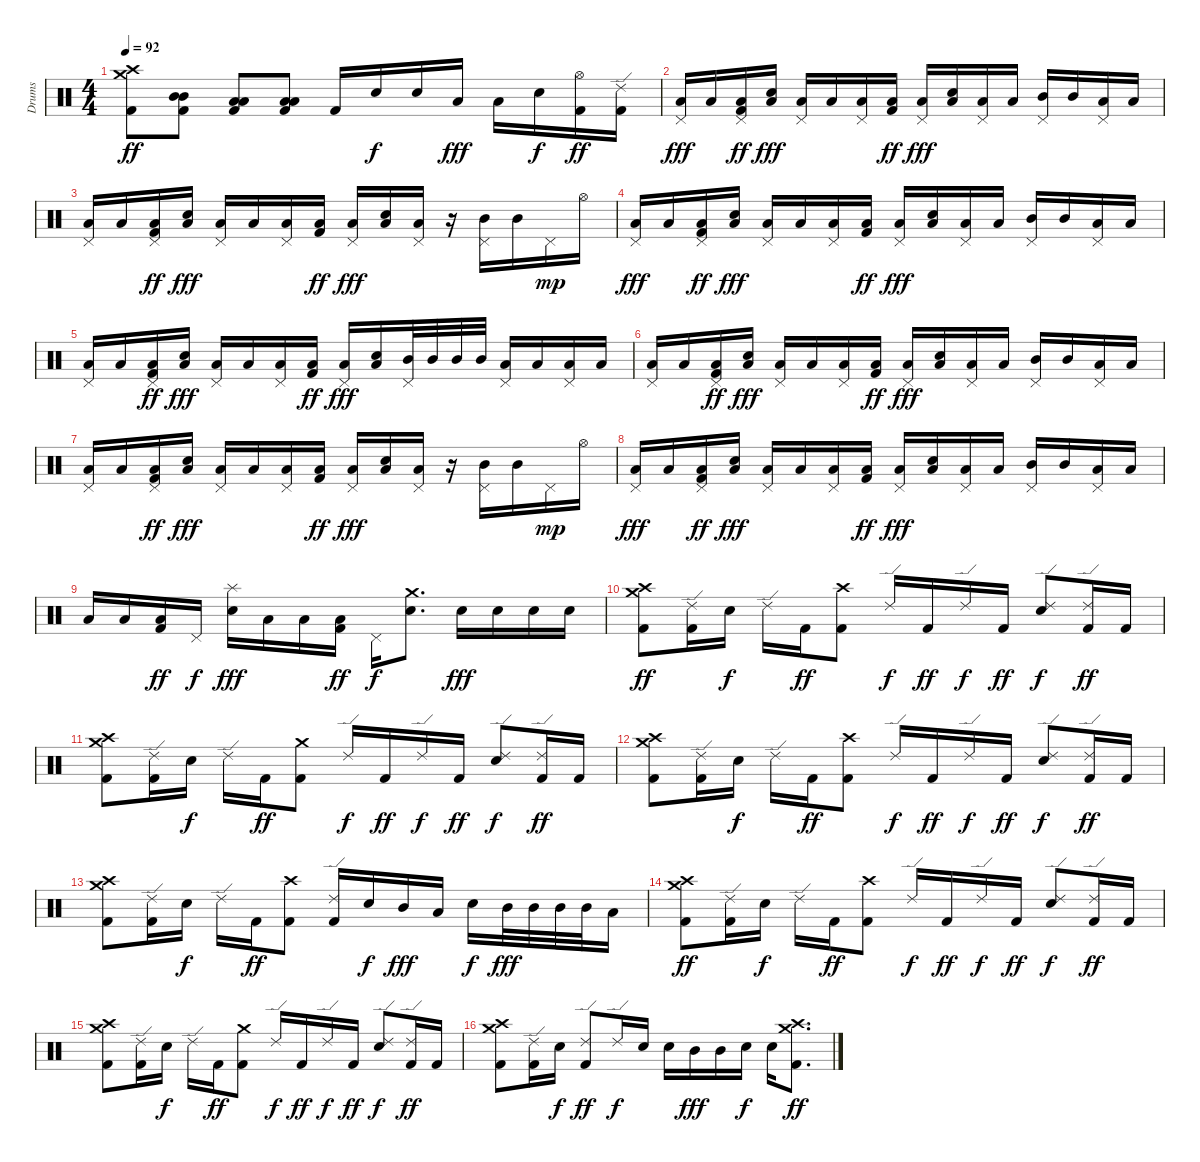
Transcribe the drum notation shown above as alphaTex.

\track ("Drums" "Drums") {instrument percussion}
\staff {score}
\articulation defaults
\ts (4 4)
\tempo 92
\clef neutral
\ks c
("Crash medium (hit)" "Crash high (hit)" "Kick (hit) 2").8{dy ff} ("Mid Tom (hit)" "Mid Tom (hit)" "Kick (hit) 2").8 ("Low Tom (hit)" "Low Tom (hit)" "Kick (hit) 2").8 ("Low Floor Tom (hit)" "Low Floor Tom (hit)" "Kick (hit) 2").8 "Kick (hit) 2".16 "Electric Snare (hit)".16{dy f} "Electric Snare (hit)".16 "Low Tom (hit)".16{dy fff} "Low Tom (hit)".16 "Electric Snare (hit)".16{dy f} ("Hi-Hat (open)" "Kick (hit) 2").16{dy ff} ("Ride (edge) 2" "Kick (hit) 2").16 |
("Pedal Hi-Hat (hit)" "Low Floor Tom (hit)").16{dy fff} "Low Floor Tom (hit)".16 ("Pedal Hi-Hat (hit)" "Low Floor Tom (hit)" "Kick (hit) 2").16{dy ff} ("Electric Snare (hit)" "Low Floor Tom (hit)").16{dy fff} ("Pedal Hi-Hat (hit)" "Low Floor Tom (hit)").16 "Low Floor Tom (hit)".16 ("Pedal Hi-Hat (hit)" "Low Floor Tom (hit)").16 ("Low Floor Tom (hit)" "Kick (hit) 2").16{dy ff} ("Pedal Hi-Hat (hit)" "Low Floor Tom (hit)").16{dy fff} ("Electric Snare (hit)" "Low Floor Tom (hit)").16 ("Pedal Hi-Hat (hit)" "Low Floor Tom (hit)").16 "Low Floor Tom (hit)".16 ("Pedal Hi-Hat (hit)" "Mid Tom (hit)").16 "Mid Tom (hit)".16 ("Pedal Hi-Hat (hit)" "Low Tom (hit)").16 "Low Tom (hit)".16 |
("Pedal Hi-Hat (hit)" "Low Floor Tom (hit)").16 "Low Floor Tom (hit)".16 ("Pedal Hi-Hat (hit)" "Low Floor Tom (hit)" "Kick (hit) 2").16{dy ff} ("Electric Snare (hit)" "Low Floor Tom (hit)").16{dy fff} ("Pedal Hi-Hat (hit)" "Low Floor Tom (hit)").16 "Low Floor Tom (hit)".16 ("Pedal Hi-Hat (hit)" "Low Floor Tom (hit)").16 ("Low Floor Tom (hit)" "Kick (hit) 2").16{dy ff} ("Pedal Hi-Hat (hit)" "Low Floor Tom (hit)").16{dy fff} ("Electric Snare (hit)" "Low Floor Tom (hit)").16 ("Pedal Hi-Hat (hit)" "Low Floor Tom (hit)").16 r.16 ("Pedal Hi-Hat (hit)" "Mid Tom (hit)").16 "Mid Tom (hit)".16 "Pedal Hi-Hat (hit)".16{dy mp} "Hi-Hat (open)".16 |
("Pedal Hi-Hat (hit)" "Low Floor Tom (hit)").16{dy fff} "Low Floor Tom (hit)".16 ("Pedal Hi-Hat (hit)" "Low Floor Tom (hit)" "Kick (hit) 2").16{dy ff} ("Electric Snare (hit)" "Low Floor Tom (hit)").16{dy fff} ("Pedal Hi-Hat (hit)" "Low Floor Tom (hit)").16 "Low Floor Tom (hit)".16 ("Pedal Hi-Hat (hit)" "Low Floor Tom (hit)").16 ("Low Floor Tom (hit)" "Kick (hit) 2").16{dy ff} ("Pedal Hi-Hat (hit)" "Low Floor Tom (hit)").16{dy fff} ("Electric Snare (hit)" "Low Floor Tom (hit)").16 ("Pedal Hi-Hat (hit)" "Low Floor Tom (hit)").16 "Low Floor Tom (hit)".16 ("Pedal Hi-Hat (hit)" "Mid Tom (hit)").16 "Mid Tom (hit)".16 ("Pedal Hi-Hat (hit)" "Low Tom (hit)").16 "Low Tom (hit)".16 |
("Pedal Hi-Hat (hit)" "Low Floor Tom (hit)").16 "Low Floor Tom (hit)".16 ("Pedal Hi-Hat (hit)" "Low Floor Tom (hit)" "Kick (hit) 2").16{dy ff} ("Electric Snare (hit)" "Low Floor Tom (hit)").16{dy fff} ("Pedal Hi-Hat (hit)" "Low Floor Tom (hit)").16 "Low Floor Tom (hit)".16 ("Pedal Hi-Hat (hit)" "Low Floor Tom (hit)").16 ("Low Floor Tom (hit)" "Kick (hit) 2").16{dy ff} ("Pedal Hi-Hat (hit)" "Low Floor Tom (hit)").16{dy fff} ("Electric Snare (hit)" "Low Floor Tom (hit)").16 ("Pedal Hi-Hat (hit)" "Mid Tom (hit)").32 "Mid Tom (hit)".32 "Mid Tom (hit)".32 "Mid Tom (hit)".32 ("Pedal Hi-Hat (hit)" "Low Tom (hit)").16 "Low Tom (hit)".16 ("Pedal Hi-Hat (hit)" "Low Tom (hit)").16 "Low Tom (hit)".16 |
("Pedal Hi-Hat (hit)" "Low Floor Tom (hit)").16 "Low Floor Tom (hit)".16 ("Pedal Hi-Hat (hit)" "Low Floor Tom (hit)" "Kick (hit) 2").16{dy ff} ("Electric Snare (hit)" "Low Floor Tom (hit)").16{dy fff} ("Pedal Hi-Hat (hit)" "Low Floor Tom (hit)").16 "Low Floor Tom (hit)".16 ("Pedal Hi-Hat (hit)" "Low Floor Tom (hit)").16 ("Low Floor Tom (hit)" "Kick (hit) 2").16{dy ff} ("Pedal Hi-Hat (hit)" "Low Floor Tom (hit)").16{dy fff} ("Electric Snare (hit)" "Low Floor Tom (hit)").16 ("Pedal Hi-Hat (hit)" "Low Floor Tom (hit)").16 "Low Floor Tom (hit)".16 ("Pedal Hi-Hat (hit)" "Mid Tom (hit)").16 "Mid Tom (hit)".16 ("Pedal Hi-Hat (hit)" "Low Tom (hit)").16 "Low Tom (hit)".16 |
("Pedal Hi-Hat (hit)" "Low Floor Tom (hit)").16 "Low Floor Tom (hit)".16 ("Pedal Hi-Hat (hit)" "Low Floor Tom (hit)" "Kick (hit) 2").16{dy ff} ("Electric Snare (hit)" "Low Floor Tom (hit)").16{dy fff} ("Pedal Hi-Hat (hit)" "Low Floor Tom (hit)").16 "Low Floor Tom (hit)".16 ("Pedal Hi-Hat (hit)" "Low Floor Tom (hit)").16 ("Low Floor Tom (hit)" "Kick (hit) 2").16{dy ff} ("Pedal Hi-Hat (hit)" "Low Floor Tom (hit)").16{dy fff} ("Electric Snare (hit)" "Low Floor Tom (hit)").16 ("Pedal Hi-Hat (hit)" "Low Floor Tom (hit)").16 r.16 ("Pedal Hi-Hat (hit)" "Mid Tom (hit)").16 "Mid Tom (hit)".16 "Pedal Hi-Hat (hit)".16{dy mp} "Hi-Hat (open)".16 |
("Pedal Hi-Hat (hit)" "Low Floor Tom (hit)").16{dy fff} "Low Floor Tom (hit)".16 ("Pedal Hi-Hat (hit)" "Low Floor Tom (hit)" "Kick (hit) 2").16{dy ff} ("Electric Snare (hit)" "Low Floor Tom (hit)").16{dy fff} ("Pedal Hi-Hat (hit)" "Low Floor Tom (hit)").16 "Low Floor Tom (hit)".16 ("Pedal Hi-Hat (hit)" "Low Floor Tom (hit)").16 ("Low Floor Tom (hit)" "Kick (hit) 2").16{dy ff} ("Pedal Hi-Hat (hit)" "Low Floor Tom (hit)").16{dy fff} ("Electric Snare (hit)" "Low Floor Tom (hit)").16 ("Pedal Hi-Hat (hit)" "Low Floor Tom (hit)").16 "Low Floor Tom (hit)".16 ("Pedal Hi-Hat (hit)" "Mid Tom (hit)").16 "Mid Tom (hit)".16 ("Pedal Hi-Hat (hit)" "Low Tom (hit)").16 "Low Tom (hit)".16 |
"Low Floor Tom (hit)".16 "Low Floor Tom (hit)".16 ("Low Floor Tom (hit)" "Kick (hit) 2").16{dy ff} "Pedal Hi-Hat (hit)".16{dy f} ("Splash (hit)" "Electric Snare (hit)").16{dy fff} "Low Floor Tom (hit)".16 "Low Floor Tom (hit)".16 ("Low Floor Tom (hit)" "Kick (hit) 2").16{dy ff} "Pedal Hi-Hat (hit)".16{dy f} ("Crash medium (hit)" "Electric Snare (hit)").8{d} "Electric Snare (hit)".16{dy fff} "Electric Snare (hit)".16 "Electric Snare (hit)".16 "Electric Snare (hit)".16 |
("Crash medium (hit)" "Crash high (hit)" "Kick (hit) 2").8{dy ff} ("Ride (edge) 2" "Kick (hit) 2").16 "Electric Snare (hit)".16{dy f} "Ride (edge) 2".16 "Kick (hit) 2".16{dy ff} ("Crash high (hit)" "Kick (hit) 2").8 "Ride (edge) 2".16{dy f} "Kick (hit) 2".16{dy ff} "Ride (edge) 2".16{dy f} "Kick (hit) 2".16{dy ff} ("Ride (edge) 2" "Electric Snare (hit)").8{dy f} ("Ride (edge) 2" "Kick (hit) 2").16{dy ff} "Kick (hit) 2".16 |
("Crash medium (hit)" "Crash high (hit)" "Kick (hit) 2").8 ("Ride (edge) 2" "Kick (hit) 2").16 "Electric Snare (hit)".16{dy f} "Ride (edge) 2".16 "Kick (hit) 2".16{dy ff} ("Crash medium (hit)" "Kick (hit) 2").8 "Ride (edge) 2".16{dy f} "Kick (hit) 2".16{dy ff} "Ride (edge) 2".16{dy f} "Kick (hit) 2".16{dy ff} ("Ride (edge) 2" "Electric Snare (hit)").8{dy f} ("Ride (edge) 2" "Kick (hit) 2").16{dy ff} "Kick (hit) 2".16 |
("Crash medium (hit)" "Crash high (hit)" "Kick (hit) 2").8 ("Ride (edge) 2" "Kick (hit) 2").16 "Electric Snare (hit)".16{dy f} "Ride (edge) 2".16 "Kick (hit) 2".16{dy ff} ("Crash high (hit)" "Kick (hit) 2").8 "Ride (edge) 2".16{dy f} "Kick (hit) 2".16{dy ff} "Ride (edge) 2".16{dy f} "Kick (hit) 2".16{dy ff} ("Ride (edge) 2" "Electric Snare (hit)").8{dy f} ("Ride (edge) 2" "Kick (hit) 2").16{dy ff} "Kick (hit) 2".16 |
("Crash medium (hit)" "Crash high (hit)" "Kick (hit) 2").8 ("Ride (edge) 2" "Kick (hit) 2").16 "Electric Snare (hit)".16{dy f} "Ride (edge) 2".16 "Kick (hit) 2".16{dy ff} ("Crash high (hit)" "Kick (hit) 2").8 ("Ride (edge) 2" "Kick (hit) 2").16 "Electric Snare (hit)".16{dy f} "Mid Tom (hit)".16{dy fff} "Low Tom (hit)".16 "Electric Snare (hit)".16{dy f} "Mid Tom (hit)".32{dy fff} "Mid Tom (hit)".32 "Mid Tom (hit)".32 "Mid Tom (hit)".32 "Low Tom (hit)".16 |
("Crash medium (hit)" "Crash high (hit)" "Kick (hit) 2").8{dy ff} ("Ride (edge) 2" "Kick (hit) 2").16 "Electric Snare (hit)".16{dy f} "Ride (edge) 2".16 "Kick (hit) 2".16{dy ff} ("Crash high (hit)" "Kick (hit) 2").8 "Ride (edge) 2".16{dy f} "Kick (hit) 2".16{dy ff} "Ride (edge) 2".16{dy f} "Kick (hit) 2".16{dy ff} ("Ride (edge) 2" "Electric Snare (hit)").8{dy f} ("Ride (edge) 2" "Kick (hit) 2").16{dy ff} "Kick (hit) 2".16 |
("Crash medium (hit)" "Crash high (hit)" "Kick (hit) 2").8 ("Ride (edge) 2" "Kick (hit) 2").16 "Electric Snare (hit)".16{dy f} "Ride (edge) 2".16 "Kick (hit) 2".16{dy ff} ("Crash medium (hit)" "Kick (hit) 2").8 "Ride (edge) 2".16{dy f} "Kick (hit) 2".16{dy ff} "Ride (edge) 2".16{dy f} "Kick (hit) 2".16{dy ff} ("Ride (edge) 2" "Electric Snare (hit)").8{dy f} ("Ride (edge) 2" "Kick (hit) 2").16{dy ff} "Kick (hit) 2".16 |
("Crash medium (hit)" "Crash high (hit)" "Kick (hit) 2").8 ("Ride (edge) 2" "Kick (hit) 2").16 "Electric Snare (hit)".16{dy f} ("Ride (edge) 2" "Kick (hit) 2").8{dy ff} "Ride (edge) 2".16{dy f} "Electric Snare (hit)".16 "Electric Snare (hit)".16 "Mid Tom (hit)".16{dy fff} "Mid Tom (hit)".16 "Electric Snare (hit)".16{dy f} "Electric Snare (hit)".16 ("Crash medium (hit)" "Crash high (hit)" "Kick (hit) 2").8{d dy ff}
